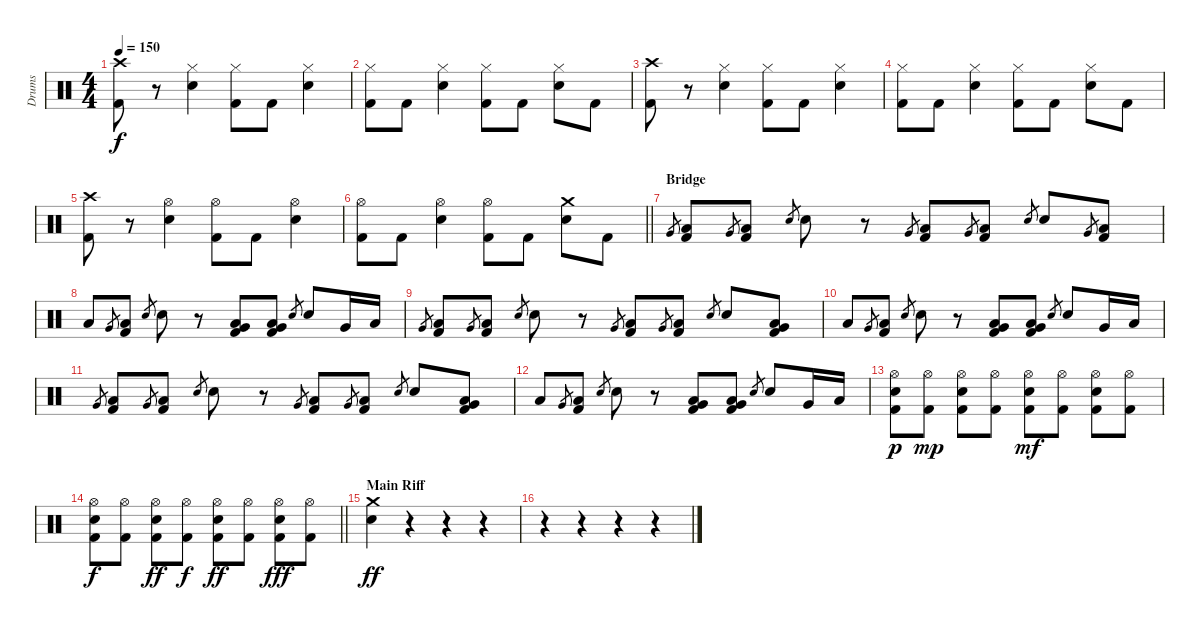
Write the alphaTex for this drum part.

\track ("Drums" "Drums") {instrument percussion}
\staff {score}
\articulation defaults
\ts (4 4)
\tempo 150
\clef neutral
\ks c
("Crash high (hit)" "Kick (hit) 2").8{dy f} r.8 ("Hi-Hat (closed)" "Electric Snare (hit)").4 ("Hi-Hat (closed)" "Kick (hit) 2").8 "Kick (hit) 2".8 ("Hi-Hat (closed)" "Electric Snare (hit)").4 |
("Hi-Hat (closed)" "Kick (hit) 2").8 "Kick (hit) 2".8 ("Hi-Hat (closed)" "Electric Snare (hit)").4 ("Hi-Hat (closed)" "Kick (hit) 2").8 "Kick (hit) 2".8 ("Hi-Hat (closed)" "Electric Snare (hit)").8 "Kick (hit) 2".8 |
("Crash high (hit)" "Kick (hit) 2").8 r.8 ("Hi-Hat (closed)" "Electric Snare (hit)").4 ("Hi-Hat (closed)" "Kick (hit) 2").8 "Kick (hit) 2".8 ("Hi-Hat (closed)" "Electric Snare (hit)").4 |
("Hi-Hat (closed)" "Kick (hit) 2").8 "Kick (hit) 2".8 ("Hi-Hat (closed)" "Electric Snare (hit)").4 ("Hi-Hat (closed)" "Kick (hit) 2").8 "Kick (hit) 2".8 ("Hi-Hat (closed)" "Electric Snare (hit)").8 "Kick (hit) 2".8 |
("Crash high (hit)" "Kick (hit) 2").8 r.8 ("Hi-Hat (open)" "Electric Snare (hit)").4 ("Hi-Hat (open)" "Kick (hit) 2").8 "Kick (hit) 2".8 ("Hi-Hat (open)" "Electric Snare (hit)").4 |
\barLineRight lightlight
("Hi-Hat (open)" "Kick (hit) 2").8 "Kick (hit) 2".8 ("Hi-Hat (open)" "Electric Snare (hit)").4 ("Hi-Hat (open)" "Kick (hit) 2").8 "Kick (hit) 2".8 ("Crash medium (hit)" "Electric Snare (hit)").8 "Kick (hit) 2".8 |
\section ("" "Bridge")
"Very Low Tom (hit)".8{gr} ("Low Tom (hit)" "Kick (hit) 2").8 "Very Low Tom (hit)".8{gr} ("Low Tom (hit)" "Kick (hit) 2").8 "Electric Snare (hit)".8{gr} "Electric Snare (hit)".8 r.8 "Very Low Tom (hit)".8{gr} ("Low Tom (hit)" "Kick (hit) 2").8 "Very Low Tom (hit)".8{gr} ("Low Tom (hit)" "Kick (hit) 2").8 "Electric Snare (hit)".8{gr} "Electric Snare (hit)".8 "Very Low Tom (hit)".8{gr} ("Low Tom (hit)" "Kick (hit) 2").8 |
"Low Tom (hit)".8 "Very Low Tom (hit)".8{gr} ("Low Tom (hit)" "Kick (hit) 2").8 "Electric Snare (hit)".8{gr} "Electric Snare (hit)".8 r.8 ("Low Tom (hit)" "Very Low Tom (hit)" "Kick (hit) 2").8 ("Low Tom (hit)" "Very Low Tom (hit)" "Kick (hit) 2").8 "Electric Snare (hit)".8{gr} "Electric Snare (hit)".8 "Very Low Tom (hit)".16 "Low Tom (hit)".16 |
"Very Low Tom (hit)".8{gr} ("Low Tom (hit)" "Kick (hit) 2").8 "Very Low Tom (hit)".8{gr} ("Low Tom (hit)" "Kick (hit) 2").8 "Electric Snare (hit)".8{gr} "Electric Snare (hit)".8 r.8 "Very Low Tom (hit)".8{gr} ("Low Tom (hit)" "Kick (hit) 2").8 "Very Low Tom (hit)".8{gr} ("Low Tom (hit)" "Kick (hit) 2").8 "Electric Snare (hit)".8{gr} "Electric Snare (hit)".8 ("Low Tom (hit)" "Very Low Tom (hit)" "Kick (hit) 2").8 |
"Low Tom (hit)".8 "Very Low Tom (hit)".8{gr} ("Low Tom (hit)" "Kick (hit) 2").8 "Electric Snare (hit)".8{gr} "Electric Snare (hit)".8 r.8 ("Low Tom (hit)" "Very Low Tom (hit)" "Kick (hit) 2").8 ("Low Tom (hit)" "Very Low Tom (hit)" "Kick (hit) 2").8 "Electric Snare (hit)".8{gr} "Electric Snare (hit)".8 "Very Low Tom (hit)".16 "Low Tom (hit)".16 |
"Very Low Tom (hit)".8{gr} ("Low Tom (hit)" "Kick (hit) 2").8 "Very Low Tom (hit)".8{gr} ("Low Tom (hit)" "Kick (hit) 2").8 "Electric Snare (hit)".8{gr} "Electric Snare (hit)".8 r.8 "Very Low Tom (hit)".8{gr} ("Low Tom (hit)" "Kick (hit) 2").8 "Very Low Tom (hit)".8{gr} ("Low Tom (hit)" "Kick (hit) 2").8 "Electric Snare (hit)".8{gr} "Electric Snare (hit)".8 ("Low Tom (hit)" "Very Low Tom (hit)" "Kick (hit) 2").8 |
"Low Tom (hit)".8 "Very Low Tom (hit)".8{gr} ("Low Tom (hit)" "Kick (hit) 2").8 "Electric Snare (hit)".8{gr} "Electric Snare (hit)".8 r.8 ("Low Tom (hit)" "Very Low Tom (hit)" "Kick (hit) 2").8 ("Low Tom (hit)" "Very Low Tom (hit)" "Kick (hit) 2").8 "Electric Snare (hit)".8{gr} "Electric Snare (hit)".8 "Very Low Tom (hit)".16 "Low Tom (hit)".16 |
("Hi-Hat (open)" "Electric Snare (hit)" "Kick (hit) 2").8{dy p} ("Hi-Hat (open)" "Kick (hit) 2").8{dy mp} ("Hi-Hat (open)" "Electric Snare (hit)" "Kick (hit) 2").8 ("Hi-Hat (open)" "Kick (hit) 2").8 ("Hi-Hat (open)" "Electric Snare (hit)" "Kick (hit) 2").8{dy mf} ("Hi-Hat (open)" "Kick (hit) 2").8 ("Hi-Hat (open)" "Electric Snare (hit)" "Kick (hit) 2").8 ("Hi-Hat (open)" "Kick (hit) 2").8 |
\barLineRight lightlight
("Hi-Hat (open)" "Electric Snare (hit)" "Kick (hit) 2").8{dy f} ("Hi-Hat (open)" "Kick (hit) 2").8 ("Hi-Hat (open)" "Electric Snare (hit)" "Kick (hit) 2").8{dy ff} ("Hi-Hat (open)" "Kick (hit) 2").8{dy f} ("Hi-Hat (open)" "Electric Snare (hit)" "Kick (hit) 2").8{dy ff} ("Hi-Hat (open)" "Kick (hit) 2").8 ("Hi-Hat (open)" "Electric Snare (hit)" "Kick (hit) 2").8{dy fff} ("Hi-Hat (open)" "Kick (hit) 2").8 |
\section ("" "Main Riff")
("Crash medium (hit)" "Electric Snare (hit)").4{dy ff} r.4 r.4 r.4 |
r.4 r.4 r.4 r.4{volume 0}
